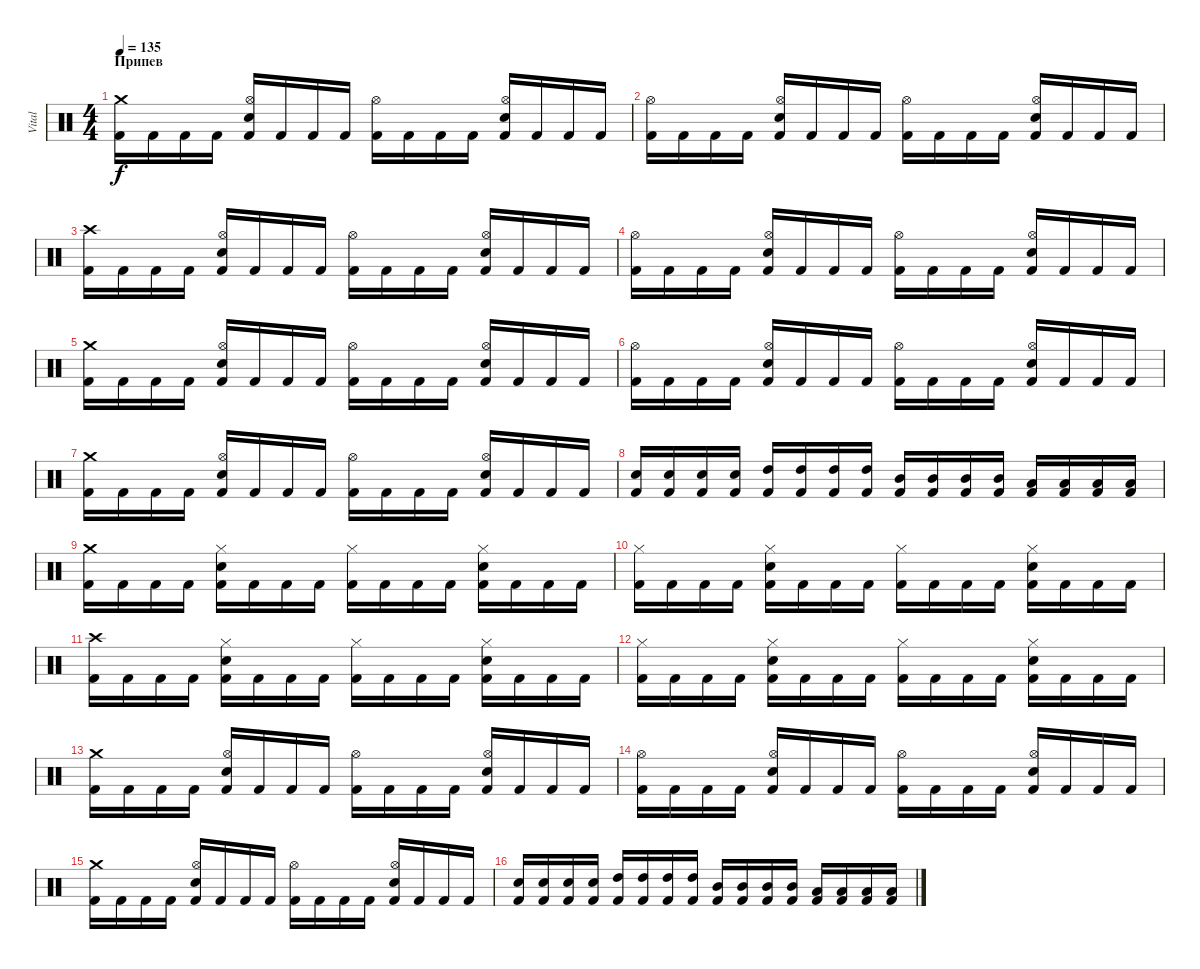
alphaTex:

\track ("Vital" "Vital") {instrument percussion}
\staff {score}
\articulation defaults
\ts (4 4)
\section ("" "Припев ")
\tempo 135
\clef neutral
\ks c
("Crash medium (hit)" "Kick (hit) 2").16{dy f} "Kick (hit) 2".16 "Kick (hit) 2".16 "Kick (hit) 2".16 ("Hi-Hat (open)" "Snare (hit) 2" "Kick (hit) 2").16 "Kick (hit) 2".16 "Kick (hit) 2".16 "Kick (hit) 2".16 ("Hi-Hat (open)" "Kick (hit) 2").16 "Kick (hit) 2".16 "Kick (hit) 2".16 "Kick (hit) 2".16 ("Hi-Hat (open)" "Snare (hit) 2" "Kick (hit) 2").16 "Kick (hit) 2".16 "Kick (hit) 2".16 "Kick (hit) 2".16 |
("Hi-Hat (open)" "Kick (hit) 2").16 "Kick (hit) 2".16 "Kick (hit) 2".16 "Kick (hit) 2".16 ("Hi-Hat (open)" "Snare (hit) 2" "Kick (hit) 2").16 "Kick (hit) 2".16 "Kick (hit) 2".16 "Kick (hit) 2".16 ("Hi-Hat (open)" "Kick (hit) 2").16 "Kick (hit) 2".16 "Kick (hit) 2".16 "Kick (hit) 2".16 ("Hi-Hat (open)" "Snare (hit) 2" "Kick (hit) 2").16 "Kick (hit) 2".16 "Kick (hit) 2".16 "Kick (hit) 2".16 |
("Crash high (hit)" "Kick (hit) 2").16 "Kick (hit) 2".16 "Kick (hit) 2".16 "Kick (hit) 2".16 ("Hi-Hat (open)" "Snare (hit) 2" "Kick (hit) 2").16 "Kick (hit) 2".16 "Kick (hit) 2".16 "Kick (hit) 2".16 ("Hi-Hat (open)" "Kick (hit) 2").16 "Kick (hit) 2".16 "Kick (hit) 2".16 "Kick (hit) 2".16 ("Hi-Hat (open)" "Snare (hit) 2" "Kick (hit) 2").16 "Kick (hit) 2".16 "Kick (hit) 2".16 "Kick (hit) 2".16 |
("Hi-Hat (open)" "Kick (hit) 2").16 "Kick (hit) 2".16 "Kick (hit) 2".16 "Kick (hit) 2".16 ("Hi-Hat (open)" "Snare (hit) 2" "Kick (hit) 2").16 "Kick (hit) 2".16 "Kick (hit) 2".16 "Kick (hit) 2".16 ("Hi-Hat (open)" "Kick (hit) 2").16 "Kick (hit) 2".16 "Kick (hit) 2".16 "Kick (hit) 2".16 ("Hi-Hat (open)" "Snare (hit) 2" "Kick (hit) 2").16 "Kick (hit) 2".16 "Kick (hit) 2".16 "Kick (hit) 2".16 |
("Crash medium (hit)" "Kick (hit) 2").16 "Kick (hit) 2".16 "Kick (hit) 2".16 "Kick (hit) 2".16 ("Hi-Hat (open)" "Snare (hit) 2" "Kick (hit) 2").16 "Kick (hit) 2".16 "Kick (hit) 2".16 "Kick (hit) 2".16 ("Hi-Hat (open)" "Kick (hit) 2").16 "Kick (hit) 2".16 "Kick (hit) 2".16 "Kick (hit) 2".16 ("Hi-Hat (open)" "Snare (hit) 2" "Kick (hit) 2").16 "Kick (hit) 2".16 "Kick (hit) 2".16 "Kick (hit) 2".16 |
("Hi-Hat (open)" "Kick (hit) 2").16 "Kick (hit) 2".16 "Kick (hit) 2".16 "Kick (hit) 2".16 ("Hi-Hat (open)" "Snare (hit) 2" "Kick (hit) 2").16 "Kick (hit) 2".16 "Kick (hit) 2".16 "Kick (hit) 2".16 ("Hi-Hat (open)" "Kick (hit) 2").16 "Kick (hit) 2".16 "Kick (hit) 2".16 "Kick (hit) 2".16 ("Hi-Hat (open)" "Snare (hit) 2" "Kick (hit) 2").16 "Kick (hit) 2".16 "Kick (hit) 2".16 "Kick (hit) 2".16 |
("Crash medium (hit)" "Kick (hit) 2").16 "Kick (hit) 2".16 "Kick (hit) 2".16 "Kick (hit) 2".16 ("Hi-Hat (open)" "Snare (hit) 2" "Kick (hit) 2").16 "Kick (hit) 2".16 "Kick (hit) 2".16 "Kick (hit) 2".16 ("Hi-Hat (open)" "Kick (hit) 2").16 "Kick (hit) 2".16 "Kick (hit) 2".16 "Kick (hit) 2".16 ("Hi-Hat (open)" "Snare (hit) 2" "Kick (hit) 2").16 "Kick (hit) 2".16 "Kick (hit) 2".16 "Kick (hit) 2".16 |
("Snare (hit) 2" "Kick (hit) 2").16 ("Snare (hit) 2" "Kick (hit) 2").16 ("Snare (hit) 2" "Kick (hit) 2").16 ("Snare (hit) 2" "Kick (hit) 2").16 ("High Tom (hit)" "Kick (hit) 2").16 ("High Tom (hit)" "Kick (hit) 2").16 ("High Tom (hit)" "Kick (hit) 2").16 ("High Tom (hit)" "Kick (hit) 2").16 ("Mid Tom (hit)" "Kick (hit) 2").16 ("Mid Tom (hit)" "Kick (hit) 2").16 ("Mid Tom (hit)" "Kick (hit) 2").16 ("Mid Tom (hit)" "Kick (hit) 2").16 ("Low Tom (hit)" "Kick (hit) 2").16 ("Low Tom (hit)" "Kick (hit) 2").16 ("Low Tom (hit)" "Kick (hit) 2").16 ("Low Tom (hit)" "Kick (hit) 2").16 |
("Crash medium (hit)" "Kick (hit) 2").16 "Kick (hit) 2".16 "Kick (hit) 2".16 "Kick (hit) 2".16 ("Hi-Hat (closed)" "Snare (hit) 2" "Kick (hit) 2").16 "Kick (hit) 2".16 "Kick (hit) 2".16 "Kick (hit) 2".16 ("Hi-Hat (closed)" "Kick (hit) 2").16 "Kick (hit) 2".16 "Kick (hit) 2".16 "Kick (hit) 2".16 ("Hi-Hat (closed)" "Snare (hit) 2" "Kick (hit) 2").16 "Kick (hit) 2".16 "Kick (hit) 2".16 "Kick (hit) 2".16 |
("Hi-Hat (closed)" "Kick (hit) 2").16 "Kick (hit) 2".16 "Kick (hit) 2".16 "Kick (hit) 2".16 ("Hi-Hat (closed)" "Snare (hit) 2" "Kick (hit) 2").16 "Kick (hit) 2".16 "Kick (hit) 2".16 "Kick (hit) 2".16 ("Hi-Hat (closed)" "Kick (hit) 2").16 "Kick (hit) 2".16 "Kick (hit) 2".16 "Kick (hit) 2".16 ("Hi-Hat (closed)" "Snare (hit) 2" "Kick (hit) 2").16 "Kick (hit) 2".16 "Kick (hit) 2".16 "Kick (hit) 2".16 |
("Crash high (hit)" "Kick (hit) 2").16 "Kick (hit) 2".16 "Kick (hit) 2".16 "Kick (hit) 2".16 ("Hi-Hat (closed)" "Snare (hit) 2" "Kick (hit) 2").16 "Kick (hit) 2".16 "Kick (hit) 2".16 "Kick (hit) 2".16 ("Hi-Hat (closed)" "Kick (hit) 2").16 "Kick (hit) 2".16 "Kick (hit) 2".16 "Kick (hit) 2".16 ("Hi-Hat (closed)" "Snare (hit) 2" "Kick (hit) 2").16 "Kick (hit) 2".16 "Kick (hit) 2".16 "Kick (hit) 2".16 |
("Hi-Hat (closed)" "Kick (hit) 2").16 "Kick (hit) 2".16 "Kick (hit) 2".16 "Kick (hit) 2".16 ("Hi-Hat (closed)" "Snare (hit) 2" "Kick (hit) 2").16 "Kick (hit) 2".16 "Kick (hit) 2".16 "Kick (hit) 2".16 ("Hi-Hat (closed)" "Kick (hit) 2").16 "Kick (hit) 2".16 "Kick (hit) 2".16 "Kick (hit) 2".16 ("Hi-Hat (closed)" "Snare (hit) 2" "Kick (hit) 2").16 "Kick (hit) 2".16 "Kick (hit) 2".16 "Kick (hit) 2".16 |
("Crash medium (hit)" "Kick (hit) 2").16 "Kick (hit) 2".16 "Kick (hit) 2".16 "Kick (hit) 2".16 ("Hi-Hat (open)" "Snare (hit) 2" "Kick (hit) 2").16 "Kick (hit) 2".16 "Kick (hit) 2".16 "Kick (hit) 2".16 ("Hi-Hat (open)" "Kick (hit) 2").16 "Kick (hit) 2".16 "Kick (hit) 2".16 "Kick (hit) 2".16 ("Hi-Hat (open)" "Snare (hit) 2" "Kick (hit) 2").16 "Kick (hit) 2".16 "Kick (hit) 2".16 "Kick (hit) 2".16 |
("Hi-Hat (open)" "Kick (hit) 2").16 "Kick (hit) 2".16 "Kick (hit) 2".16 "Kick (hit) 2".16 ("Hi-Hat (open)" "Snare (hit) 2" "Kick (hit) 2").16 "Kick (hit) 2".16 "Kick (hit) 2".16 "Kick (hit) 2".16 ("Hi-Hat (open)" "Kick (hit) 2").16 "Kick (hit) 2".16 "Kick (hit) 2".16 "Kick (hit) 2".16 ("Hi-Hat (open)" "Snare (hit) 2" "Kick (hit) 2").16 "Kick (hit) 2".16 "Kick (hit) 2".16 "Kick (hit) 2".16 |
("Crash medium (hit)" "Kick (hit) 2").16 "Kick (hit) 2".16 "Kick (hit) 2".16 "Kick (hit) 2".16 ("Hi-Hat (open)" "Snare (hit) 2" "Kick (hit) 2").16 "Kick (hit) 2".16 "Kick (hit) 2".16 "Kick (hit) 2".16 ("Hi-Hat (open)" "Kick (hit) 2").16 "Kick (hit) 2".16 "Kick (hit) 2".16 "Kick (hit) 2".16 ("Hi-Hat (open)" "Snare (hit) 2" "Kick (hit) 2").16 "Kick (hit) 2".16 "Kick (hit) 2".16 "Kick (hit) 2".16 |
("Snare (hit) 2" "Kick (hit) 2").16 ("Snare (hit) 2" "Kick (hit) 2").16 ("Snare (hit) 2" "Kick (hit) 2").16 ("Snare (hit) 2" "Kick (hit) 2").16 ("High Tom (hit)" "Kick (hit) 2").16 ("High Tom (hit)" "Kick (hit) 2").16 ("High Tom (hit)" "Kick (hit) 2").16 ("High Tom (hit)" "Kick (hit) 2").16 ("Mid Tom (hit)" "Kick (hit) 2").16 ("Mid Tom (hit)" "Kick (hit) 2").16 ("Mid Tom (hit)" "Kick (hit) 2").16 ("Mid Tom (hit)" "Kick (hit) 2").16 ("Low Tom (hit)" "Kick (hit) 2").16 ("Low Tom (hit)" "Kick (hit) 2").16 ("Low Tom (hit)" "Kick (hit) 2").16 ("Low Tom (hit)" "Kick (hit) 2").16
